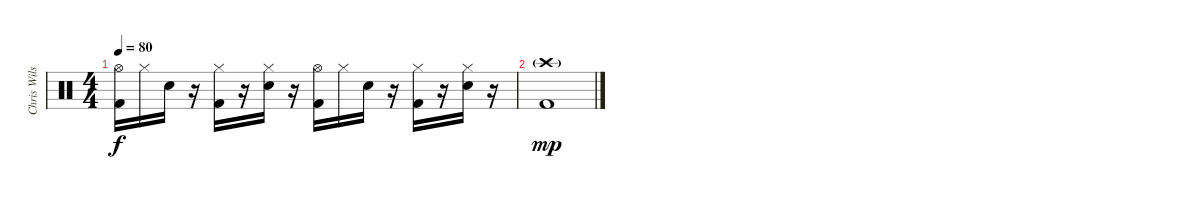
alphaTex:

\track ("Chris Wilson - Drums" "Chris Wils") {instrument percussion}
\staff {score}
\articulation defaults
\ts (4 4)
\tempo 80
\clef neutral
\ks c
("Hi-Hat (open)" "Kick (hit) 2").16{dy f} "Hi-Hat (closed)".16 "Snare (hit) 2".16 r.16 ("Hi-Hat (closed)" "Kick (hit) 2").16 r.16 ("Hi-Hat (closed)" "Snare (hit) 2").16 r.16 ("Hi-Hat (open)" "Kick (hit) 2").16 "Hi-Hat (closed)".16 "Snare (hit) 2".16 r.16 ("Hi-Hat (closed)" "Kick (hit) 2").16 r.16 ("Hi-Hat (closed)" "Snare (hit) 2").16 r.16 |
("Crash high (hit)"{g} "Kick (hit) 2").1{dy mp}
